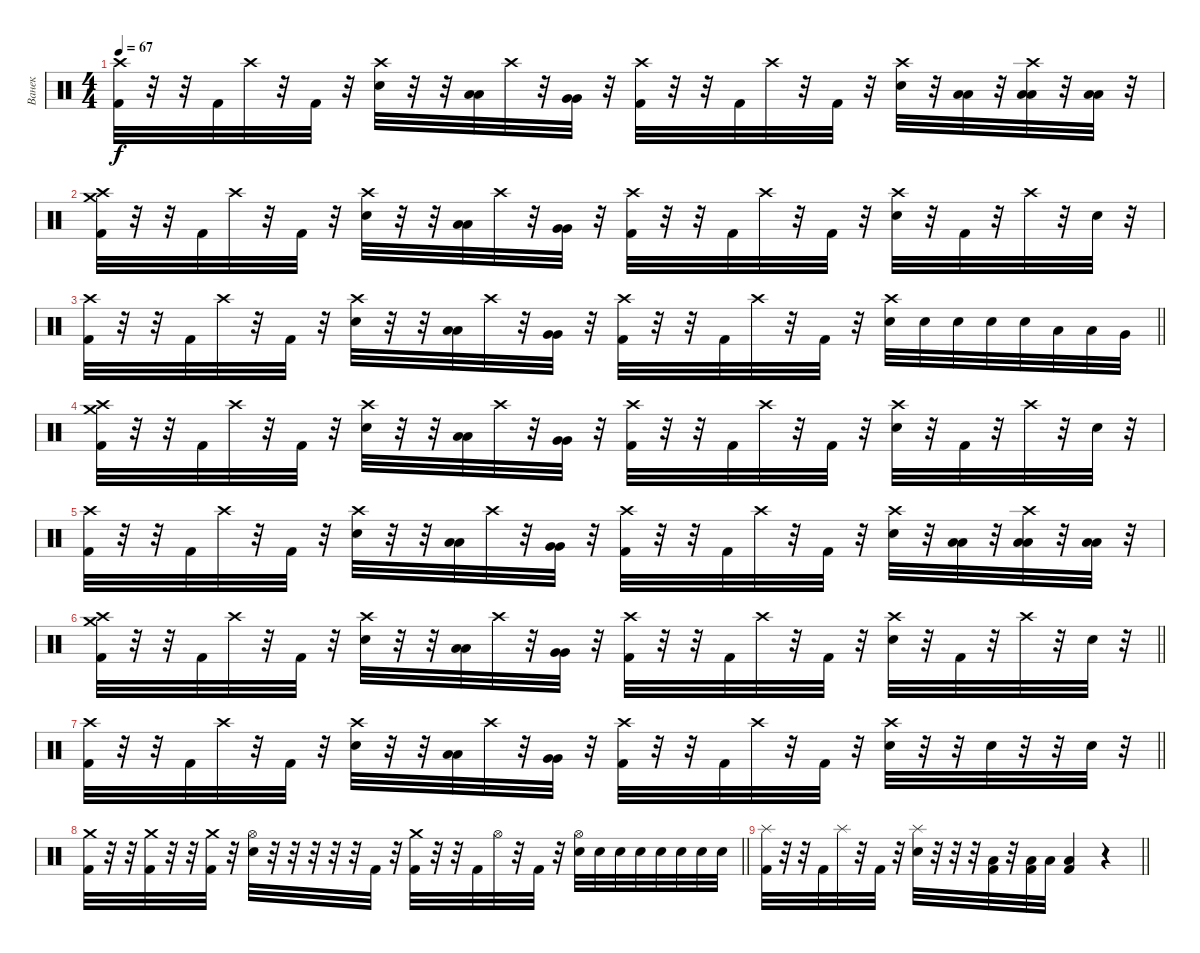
\track ("Ванек" "Ванек") {instrument percussion}
\staff {score}
\articulation defaults
\ts (4 4)
\tempo 67
\clef neutral
\ks c
("Crash high (hit)" "Kick (hit) 2").32{dy f} r.32 r.32 "Kick (hit) 2".32 "Crash high (hit)".32 r.32 "Kick (hit) 2".32 r.32 ("Crash high (hit)" "Snare (hit) 2").32 r.32 r.32 ("Low Tom (hit)" "Low Tom (hit)").32 "Crash high (hit)".32 r.32 ("Very Low Tom (hit)" "Very Low Tom (hit)").32 r.32 ("Crash high (hit)" "Kick (hit) 2").32 r.32 r.32 "Kick (hit) 2".32 "Crash high (hit)".32 r.32 "Kick (hit) 2".32 r.32 ("Crash high (hit)" "Snare (hit) 2").32 r.32 ("Low Tom (hit)" "Low Tom (hit)").32 r.32 ("Crash high (hit)" "Low Tom (hit)" "Low Tom (hit)").32 r.32 ("Low Tom (hit)" "Low Tom (hit)").32 r.32 |
("Crash high (hit)" "Crash medium (hit)" "Kick (hit) 2").32 r.32 r.32 "Kick (hit) 2".32 "Crash high (hit)".32 r.32 "Kick (hit) 2".32 r.32 ("Crash high (hit)" "Snare (hit) 2").32 r.32 r.32 ("Low Tom (hit)" "Low Tom (hit)").32 "Crash high (hit)".32 r.32 ("Very Low Tom (hit)" "Very Low Tom (hit)").32 r.32 ("Crash high (hit)" "Kick (hit) 2").32 r.32 r.32 "Kick (hit) 2".32 "Crash high (hit)".32 r.32 "Kick (hit) 2".32 r.32 ("Crash high (hit)" "Snare (hit) 2").32 r.32 "Kick (hit) 2".32 r.32 "Crash high (hit)".32 r.32 "Snare (hit) 2".32 r.32 |
\barLineRight lightlight
("Crash high (hit)" "Kick (hit) 2").32 r.32 r.32 "Kick (hit) 2".32 "Crash high (hit)".32 r.32 "Kick (hit) 2".32 r.32 ("Crash high (hit)" "Snare (hit) 2").32 r.32 r.32 ("Low Tom (hit)" "Low Tom (hit)").32 "Crash high (hit)".32 r.32 ("Very Low Tom (hit)" "Very Low Tom (hit)").32 r.32 ("Crash high (hit)" "Kick (hit) 2").32 r.32 r.32 "Kick (hit) 2".32 "Crash high (hit)".32 r.32 "Kick (hit) 2".32 r.32 ("Crash high (hit)" "Snare (hit) 2").32 "Snare (hit) 2".32 "Snare (hit) 2".32 "Snare (hit) 2".32 "Snare (hit) 2".32 "Low Tom (hit)".32 "Low Tom (hit)".32 "Very Low Tom (hit)".32 |
("Crash high (hit)" "Crash medium (hit)" "Kick (hit) 2").32 r.32 r.32 "Kick (hit) 2".32 "Crash high (hit)".32 r.32 "Kick (hit) 2".32 r.32 ("Crash high (hit)" "Snare (hit) 2").32 r.32 r.32 ("Low Tom (hit)" "Low Tom (hit)").32 "Crash high (hit)".32 r.32 ("Very Low Tom (hit)" "Very Low Tom (hit)").32 r.32 ("Crash high (hit)" "Kick (hit) 2").32 r.32 r.32 "Kick (hit) 2".32 "Crash high (hit)".32 r.32 "Kick (hit) 2".32 r.32 ("Crash high (hit)" "Snare (hit) 2").32 r.32 "Kick (hit) 2".32 r.32 "Crash high (hit)".32 r.32 "Snare (hit) 2".32 r.32 |
("Crash high (hit)" "Kick (hit) 2").32 r.32 r.32 "Kick (hit) 2".32 "Crash high (hit)".32 r.32 "Kick (hit) 2".32 r.32 ("Crash high (hit)" "Snare (hit) 2").32 r.32 r.32 ("Low Tom (hit)" "Low Tom (hit)").32 "Crash high (hit)".32 r.32 ("Very Low Tom (hit)" "Very Low Tom (hit)").32 r.32 ("Crash high (hit)" "Kick (hit) 2").32 r.32 r.32 "Kick (hit) 2".32 "Crash high (hit)".32 r.32 "Kick (hit) 2".32 r.32 ("Crash high (hit)" "Snare (hit) 2").32 r.32 ("Low Tom (hit)" "Low Tom (hit)").32 r.32 ("Crash high (hit)" "Low Tom (hit)" "Low Tom (hit)").32 r.32 ("Low Tom (hit)" "Low Tom (hit)").32 r.32 |
\barLineRight lightlight
("Crash high (hit)" "Crash medium (hit)" "Kick (hit) 2").32 r.32 r.32 "Kick (hit) 2".32 "Crash high (hit)".32 r.32 "Kick (hit) 2".32 r.32 ("Crash high (hit)" "Snare (hit) 2").32 r.32 r.32 ("Low Tom (hit)" "Low Tom (hit)").32 "Crash high (hit)".32 r.32 ("Very Low Tom (hit)" "Very Low Tom (hit)").32 r.32 ("Crash high (hit)" "Kick (hit) 2").32 r.32 r.32 "Kick (hit) 2".32 "Crash high (hit)".32 r.32 "Kick (hit) 2".32 r.32 ("Crash high (hit)" "Snare (hit) 2").32 r.32 "Kick (hit) 2".32 r.32 "Crash high (hit)".32 r.32 "Snare (hit) 2".32 r.32 |
\barLineRight lightlight
("Crash high (hit)" "Kick (hit) 2").32 r.32 r.32 "Kick (hit) 2".32 "Crash high (hit)".32 r.32 "Kick (hit) 2".32 r.32 ("Crash high (hit)" "Snare (hit) 2").32 r.32 r.32 ("Low Tom (hit)" "Low Tom (hit)").32 "Crash high (hit)".32 r.32 ("Very Low Tom (hit)" "Very Low Tom (hit)").32 r.32 ("Crash high (hit)" "Kick (hit) 2").32 r.32 r.32 "Kick (hit) 2".32 "Crash high (hit)".32 r.32 "Kick (hit) 2".32 r.32 ("Crash high (hit)" "Snare (hit) 2").32 r.32 r.32 "Snare (hit) 2".32 r.32 r.32 "Snare (hit) 2".32 r.32 |
\barLineRight lightlight
("Crash medium (hit)" "Kick (hit) 2").32 r.32 r.32 ("Crash medium (hit)" "Kick (hit) 2").32 r.32 r.32 ("Crash medium (hit)" "Kick (hit) 2").32 r.32 ("Hi-Hat (open)" "Snare (hit) 2").32 r.32 r.32 r.32 r.32 r.32 "Kick (hit) 2".32 r.32 ("Crash medium (hit)" "Kick (hit) 2").32 r.32 r.32 "Kick (hit) 2".32 "Hi-Hat (open)".32 r.32 "Kick (hit) 2".32 r.32 ("Hi-Hat (open)" "Snare (hit) 2").32 "Snare (hit) 2".32 "Snare (hit) 2".32 "Snare (hit) 2".32 "Snare (hit) 2".32 "Snare (hit) 2".32 "Snare (hit) 2".32 "Snare (hit) 2".32 |
\barLineRight lightlight
("Splash (hit)" "Kick (hit) 2").32 r.32 r.32 "Kick (hit) 2".32 "Splash (hit)".32 r.32 "Kick (hit) 2".32 r.32 ("Splash (hit)" "Snare (hit) 2").32 r.32 r.32 r.32 ("Low Tom (hit)" "Kick (hit) 2").32 r.32 ("Low Tom (hit)" "Kick (hit) 2").32 "Low Tom (hit)".32 ("Low Tom (hit)" "Kick (hit) 2").4 r.4
